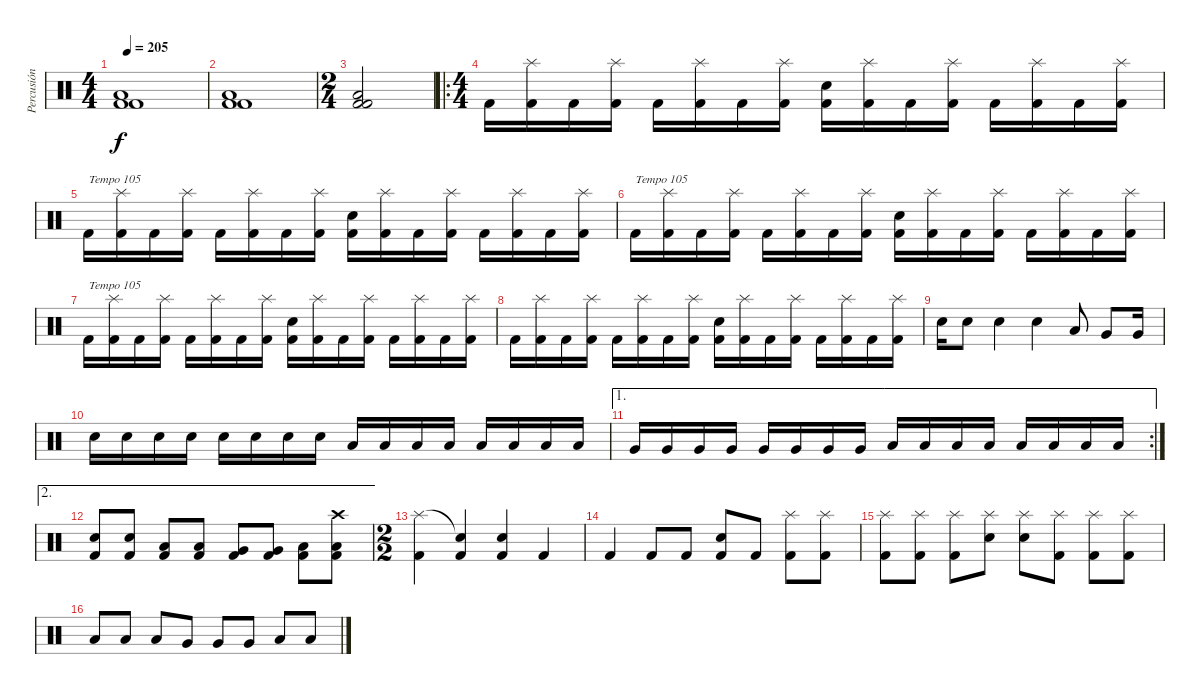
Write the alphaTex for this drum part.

\track ("Percusión" "Percusión") {instrument percussion}
\staff {score}
\articulation defaults
\ts (4 4)
\tempo 205
\clef neutral
\ks c
("Kick (hit) 2" "Kick (hit) 2" "Low Floor Tom (hit)").1{dy f} |
("Kick (hit) 2" "Kick (hit) 2" "Low Floor Tom (hit)").1 |
\ts (2 4)
("Kick (hit) 2" "Kick (hit) 2" "Low Floor Tom (hit)").2 |
\ro
\ts (4 4)
"Kick (hit) 2".16 ("Kick (hit) 2" "Splash (hit)").16 "Kick (hit) 2".16 ("Kick (hit) 2" "Splash (hit)").16 "Kick (hit) 2".16 ("Kick (hit) 2" "Splash (hit)").16 "Kick (hit) 2".16 ("Kick (hit) 2" "Splash (hit)").16 ("Kick (hit) 2" "Electric Snare (hit)").16 ("Kick (hit) 2" "Splash (hit)").16 "Kick (hit) 2".16 ("Kick (hit) 2" "Splash (hit)").16 "Kick (hit) 2".16 ("Kick (hit) 2" "Splash (hit)").16 "Kick (hit) 2".16 ("Kick (hit) 2" "Splash (hit)").16 |
"Kick (hit) 2".16{txt "Tempo 105"} ("Kick (hit) 2" "Splash (hit)").16 "Kick (hit) 2".16 ("Kick (hit) 2" "Splash (hit)").16 "Kick (hit) 2".16 ("Kick (hit) 2" "Splash (hit)").16 "Kick (hit) 2".16 ("Kick (hit) 2" "Splash (hit)").16 ("Kick (hit) 2" "Electric Snare (hit)").16 ("Kick (hit) 2" "Splash (hit)").16 "Kick (hit) 2".16 ("Kick (hit) 2" "Splash (hit)").16 "Kick (hit) 2".16 ("Kick (hit) 2" "Splash (hit)").16 "Kick (hit) 2".16 ("Kick (hit) 2" "Splash (hit)").16 |
"Kick (hit) 2".16{txt "Tempo 105"} ("Kick (hit) 2" "Splash (hit)").16 "Kick (hit) 2".16 ("Kick (hit) 2" "Splash (hit)").16 "Kick (hit) 2".16 ("Kick (hit) 2" "Splash (hit)").16 "Kick (hit) 2".16 ("Kick (hit) 2" "Splash (hit)").16 ("Kick (hit) 2" "Electric Snare (hit)").16 ("Kick (hit) 2" "Splash (hit)").16 "Kick (hit) 2".16 ("Kick (hit) 2" "Splash (hit)").16 "Kick (hit) 2".16 ("Kick (hit) 2" "Splash (hit)").16 "Kick (hit) 2".16 ("Kick (hit) 2" "Splash (hit)").16 |
"Kick (hit) 2".16{txt "Tempo 105"} ("Kick (hit) 2" "Splash (hit)").16 "Kick (hit) 2".16 ("Kick (hit) 2" "Splash (hit)").16 "Kick (hit) 2".16 ("Kick (hit) 2" "Splash (hit)").16 "Kick (hit) 2".16 ("Kick (hit) 2" "Splash (hit)").16 ("Kick (hit) 2" "Electric Snare (hit)").16 ("Kick (hit) 2" "Splash (hit)").16 "Kick (hit) 2".16 ("Kick (hit) 2" "Splash (hit)").16 "Kick (hit) 2".16 ("Kick (hit) 2" "Splash (hit)").16 "Kick (hit) 2".16 ("Kick (hit) 2" "Splash (hit)").16 |
"Kick (hit) 2".16 ("Kick (hit) 2" "Splash (hit)").16 "Kick (hit) 2".16 ("Kick (hit) 2" "Splash (hit)").16 "Kick (hit) 2".16 ("Kick (hit) 2" "Splash (hit)").16 "Kick (hit) 2".16 ("Kick (hit) 2" "Splash (hit)").16 ("Kick (hit) 2" "Electric Snare (hit)").16 ("Kick (hit) 2" "Splash (hit)").16 "Kick (hit) 2".16 ("Kick (hit) 2" "Splash (hit)").16 "Kick (hit) 2".16 ("Kick (hit) 2" "Splash (hit)").16 "Kick (hit) 2".16 ("Kick (hit) 2" "Splash (hit)").16 |
"Electric Snare (hit)".16 "Electric Snare (hit)".8 "Electric Snare (hit)".4 "Electric Snare (hit)".4 "Low Floor Tom (hit)".8 "Very Low Tom (hit)".8 "Very Low Tom (hit)".16 |
"Electric Snare (hit)".16 "Electric Snare (hit)".16 "Electric Snare (hit)".16 "Electric Snare (hit)".16 "Electric Snare (hit)".16 "Electric Snare (hit)".16 "Electric Snare (hit)".16 "Electric Snare (hit)".16 "Low Floor Tom (hit)".16 "Low Floor Tom (hit)".16 "Low Floor Tom (hit)".16 "Low Floor Tom (hit)".16 "Low Floor Tom (hit)".16 "Low Floor Tom (hit)".16 "Low Floor Tom (hit)".16 "Low Floor Tom (hit)".16 |
\ae 1
\rc 2 "Very Low Tom (hit)".16 "Very Low Tom (hit)".16 "Very Low Tom (hit)".16 "Very Low Tom (hit)".16 "Very Low Tom (hit)".16 "Very Low Tom (hit)".16 "Very Low Tom (hit)".16 "Very Low Tom (hit)".16 "Low Floor Tom (hit)".16 "Low Floor Tom (hit)".16 "Low Floor Tom (hit)".16 "Low Floor Tom (hit)".16 "Low Floor Tom (hit)".16 "Low Floor Tom (hit)".16 "Low Floor Tom (hit)".16 "Low Floor Tom (hit)".16
|
\ae 2
("Kick (hit) 2" "Electric Snare (hit)").8 ("Kick (hit) 2" "Electric Snare (hit)").8 ("Kick (hit) 2" "Low Floor Tom (hit)").8 ("Kick (hit) 2" "Low Floor Tom (hit)").8 ("Kick (hit) 2" "Very Low Tom (hit)").8 ("Kick (hit) 2" "Very Low Tom (hit)").8 ("Kick (hit) 2" "Low Floor Tom (hit)").8 ("Kick (hit) 2" "Low Floor Tom (hit)" "Crash high (hit)").8 |
\ts (2 2)
("Kick (hit) 2" "Splash (hit)").4 ("Kick (hit) 2" "Snare (hit)"{t}).4 ("Kick (hit) 2" "Electric Snare (hit)").4 "Kick (hit) 2".4 |
"Kick (hit) 2".4 "Kick (hit) 2".8 "Kick (hit) 2".8 ("Kick (hit) 2" "Electric Snare (hit)").8 "Kick (hit) 2".8 ("Kick (hit) 2" "Splash (hit)").8 ("Kick (hit) 2" "Splash (hit)").8 |
("Kick (hit) 2" "Splash (hit)").8 ("Kick (hit) 2" "Splash (hit)").8 ("Kick (hit) 2" "Splash (hit)").8 ("Splash (hit)" "Electric Snare (hit)").8 ("Splash (hit)" "Electric Snare (hit)").8 ("Kick (hit) 2" "Splash (hit)").8 ("Kick (hit) 2" "Splash (hit)").8 ("Kick (hit) 2" "Splash (hit)").8 |
"Low Floor Tom (hit)".8 "Low Floor Tom (hit)".8 "Low Floor Tom (hit)".8 "Very Low Tom (hit)".8 "Very Low Tom (hit)".8 "Very Low Tom (hit)".8 "Low Floor Tom (hit)".8 "Low Floor Tom (hit)".8
